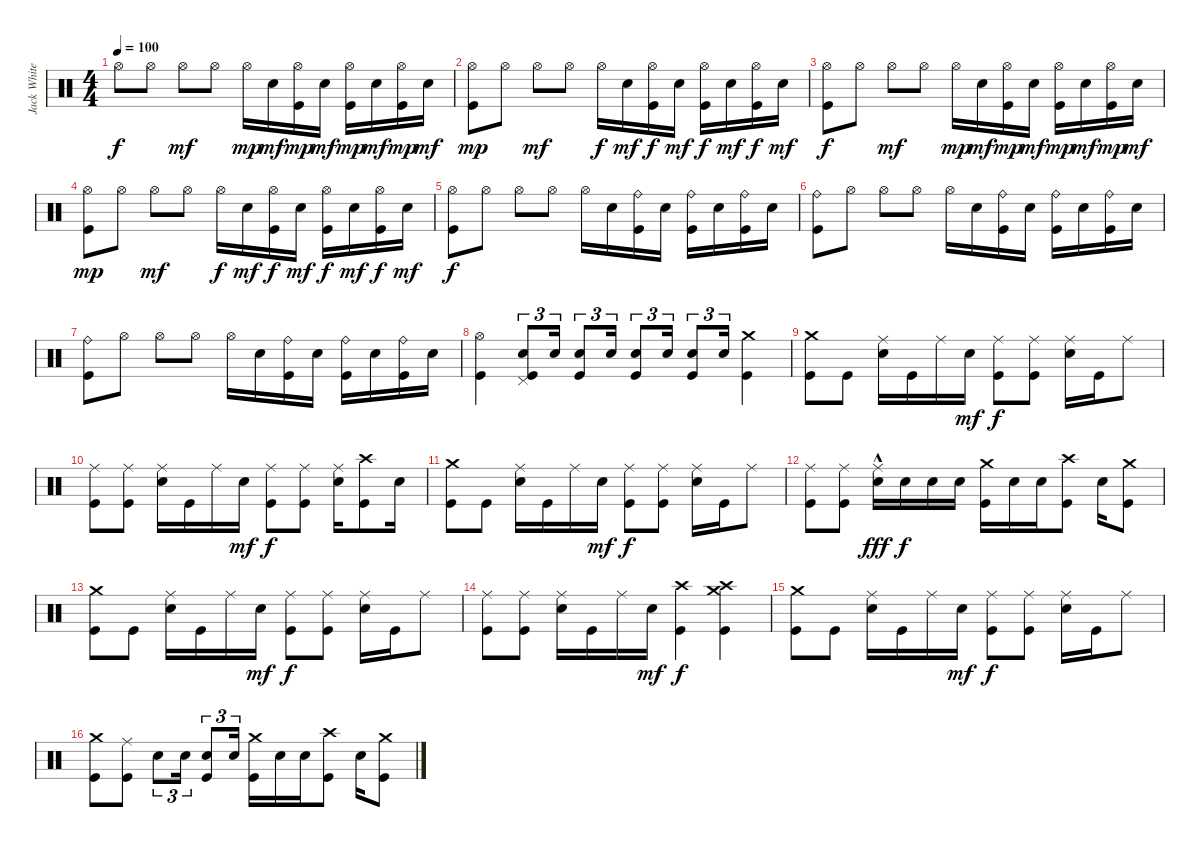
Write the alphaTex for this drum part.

\track ("Jack White" "Jack White") {instrument percussion}
\staff
\articulation defaults
\ts (4 4)
\tempo 100
\clef neutral
\ks c "Hi-Hat (open)".8{dy f} "Hi-Hat (open)".8 "Hi-Hat (open)".8{dy mf} "Hi-Hat (open)".8 "Hi-Hat (open)".16{dy mp} "Snare (hit) 2".16{dy mf}
("Hi-Hat (open)" "Kick (hit)").16{dy mp} "Snare (hit) 2".16{dy mf} ("Hi-Hat (open)" "Kick (hit)").16{dy mp} "Snare (hit) 2".16{dy mf} ("Hi-Hat (open)" "Kick (hit)").16{dy mp} "Snare (hit) 2".16{dy mf} |
("Hi-Hat (open)" "Kick (hit)").8{dy mp} "Hi-Hat (open)".8 "Hi-Hat (open)".8{dy mf} "Hi-Hat (open)".8 "Hi-Hat (open)".16{dy f} "Snare (hit) 2".16{dy mf} ("Hi-Hat (open)" "Kick (hit)").16{dy f} "Snare (hit) 2".16{dy mf} ("Hi-Hat (open)" "Kick (hit)").16{dy f} "Snare (hit) 2".16{dy mf} ("Hi-Hat (open)" "Kick (hit)").16{dy f} "Snare (hit) 2".16{dy mf} |
("Hi-Hat (open)" "Kick (hit)").8{dy f} "Hi-Hat (open)".8 "Hi-Hat (open)".8{dy mf} "Hi-Hat (open)".8 "Hi-Hat (open)".16{dy mp} "Snare (hit) 2".16{dy mf} ("Hi-Hat (open)" "Kick (hit)").16{dy mp} "Snare (hit) 2".16{dy mf} ("Hi-Hat (open)" "Kick (hit)").16{dy mp} "Snare (hit) 2".16{dy mf} ("Hi-Hat (open)" "Kick (hit)").16{dy mp} "Snare (hit) 2".16{dy mf} |
("Hi-Hat (open)" "Kick (hit)").8{dy mp} "Hi-Hat (open)".8 "Hi-Hat (open)".8{dy mf} "Hi-Hat (open)".8 "Hi-Hat (open)".16{dy f} "Snare (hit) 2".16{dy mf} ("Hi-Hat (open)" "Kick (hit)").16{dy f} "Snare (hit) 2".16{dy mf} ("Hi-Hat (open)" "Kick (hit)").16{dy f} "Snare (hit) 2".16{dy mf} ("Hi-Hat (open)" "Kick (hit)").16{dy f} "Snare (hit) 2".16{dy mf} |
("Hi-Hat (open)" "Kick (hit)").8{dy f} "Hi-Hat (open)".8 "Hi-Hat (open)".8 "Hi-Hat (open)".8 "Hi-Hat (open)".16 "Snare (hit) 2".16 ("Ride (bell)" "Kick (hit)").16 "Snare (hit) 2".16 ("Ride (bell)" "Kick (hit)").16 "Snare (hit) 2".16 ("Ride (bell)" "Kick (hit)").16 "Snare (hit) 2".16 |
("Ride (bell)" "Kick (hit)").8 "Hi-Hat (open)".8 "Hi-Hat (open)".8 "Hi-Hat (open)".8 "Hi-Hat (open)".16 "Snare (hit) 2".16 ("Ride (bell)" "Kick (hit)").16 "Snare (hit) 2".16 ("Ride (bell)" "Kick (hit)").16 "Snare (hit) 2".16 ("Ride (bell)" "Kick (hit)").16 "Snare (hit) 2".16 |
("Ride (bell)" "Kick (hit)").8 "Hi-Hat (open)".8 "Hi-Hat (open)".8 "Hi-Hat (open)".8 "Hi-Hat (open)".16 "Snare (hit) 2".16 ("Ride (bell)" "Kick (hit)").16 "Snare (hit) 2".16 ("Ride (bell)" "Kick (hit)").16 "Snare (hit) 2".16 ("Ride (bell)" "Kick (hit)").16 "Snare (hit) 2".16 |
("Hi-Hat (open)" "Kick (hit)").4 ("Pedal Hi-Hat (hit)" "Snare (hit) 2" "Kick (hit)").8{tu (3 2)} "Snare (hit) 2".16{tu (3 2)} ("Snare (hit) 2" "Kick (hit)").8{tu (3 2)} "Snare (hit) 2".16{tu (3 2)} ("Snare (hit) 2" "Kick (hit)").8{tu (3 2)} "Snare (hit) 2".16{tu (3 2)} ("Snare (hit) 2" "Kick (hit)").8{tu (3 2)} "Snare (hit) 2".16{tu (3 2)} ("Crash medium (hit)" "Kick (hit)").4 |
("Crash medium (hit)" "Kick (hit)").8 "Kick (hit)".8 ("Ride (middle)" "Snare (hit) 2").16 "Kick (hit)".16 "Ride (middle)".16 "Snare (hit) 2".16{dy mf} ("Ride (middle)" "Kick (hit)").8{dy f} ("Ride (middle)" "Kick (hit)").8 ("Ride (middle)" "Snare (hit) 2").16 "Kick (hit)".16 "Ride (middle)".8 |
("Ride (middle)" "Kick (hit)").8 ("Ride (middle)" "Kick (hit)").8 ("Ride (middle)" "Snare (hit) 2").16 "Kick (hit)".16 "Ride (middle)".16 "Snare (hit) 2".16{dy mf} ("Ride (middle)" "Kick (hit)").8{dy f} ("Ride (middle)" "Kick (hit)").8 ("Ride (middle)" "Snare (hit) 2").16 ("Crash high (hit)" "Kick (hit)").8 "Snare (hit) 2".16 |
("Crash medium (hit)" "Kick (hit)").8 "Kick (hit)".8 ("Ride (middle)" "Snare (hit) 2").16 "Kick (hit)".16 "Ride (middle)".16 "Snare (hit) 2".16{dy mf} ("Ride (middle)" "Kick (hit)").8{dy f} ("Ride (middle)" "Kick (hit)").8 ("Ride (middle)" "Snare (hit) 2").16 "Kick (hit)".16 "Ride (middle)".8 |
("Ride (middle)" "Kick (hit)").8 ("Ride (middle)" "Kick (hit)").8 ("Ride (middle)" "Snare (hit) 2"{hac}).16{dy fff} "Snare (hit) 2".16{dy f} "Snare (hit) 2".16 "Snare (hit) 2".16 ("Crash medium (hit)" "Kick (hit)").16 "Snare (hit) 2".16 "Snare (hit) 2".16 ("Crash high (hit)" "Kick (hit)").8 "Snare (hit) 2".16 ("Crash medium (hit)" "Kick (hit)").8 |
("Crash medium (hit)" "Kick (hit)").8 "Kick (hit)".8 ("Ride (middle)" "Snare (hit) 2").16 "Kick (hit)".16 "Ride (middle)".16 "Snare (hit) 2".16{dy mf} ("Ride (middle)" "Kick (hit)").8{dy f} ("Ride (middle)" "Kick (hit)").8 ("Ride (middle)" "Snare (hit) 2").16 "Kick (hit)".16 "Ride (middle)".8 |
("Ride (middle)" "Kick (hit)").8 ("Ride (middle)" "Kick (hit)").8 ("Ride (middle)" "Snare (hit) 2").16 "Kick (hit)".16 "Ride (middle)".16 "Snare (hit) 2".16{dy mf} ("Crash high (hit)" "Kick (hit)").4{dy f} ("Crash medium (hit)" "Crash high (hit)" "Kick (hit)").4 |
("Crash medium (hit)" "Kick (hit)").8 "Kick (hit)".8 ("Ride (middle)" "Snare (hit) 2").16 "Kick (hit)".16 "Ride (middle)".16 "Snare (hit) 2".16{dy mf} ("Ride (middle)" "Kick (hit)").8{dy f} ("Ride (middle)" "Kick (hit)").8 ("Ride (middle)" "Snare (hit) 2").16 "Kick (hit)".16 "Ride (middle)".8 |
("Crash medium (hit)" "Kick (hit)").8 ("Ride (middle)" "Kick (hit)").8 "Snare (hit) 2".8{tu (3 2)} "Snare (hit) 2".16{tu (3 2)} ("Snare (hit) 2" "Kick (hit)").8{tu (3 2)} "Snare (hit) 2".16{tu (3 2)} ("Crash medium (hit)" "Kick (hit)").16 "Snare (hit) 2".16 "Snare (hit) 2".16 ("Crash high (hit)" "Kick (hit)").8 "Snare (hit) 2".16 ("Crash medium (hit)" "Kick (hit)").8
